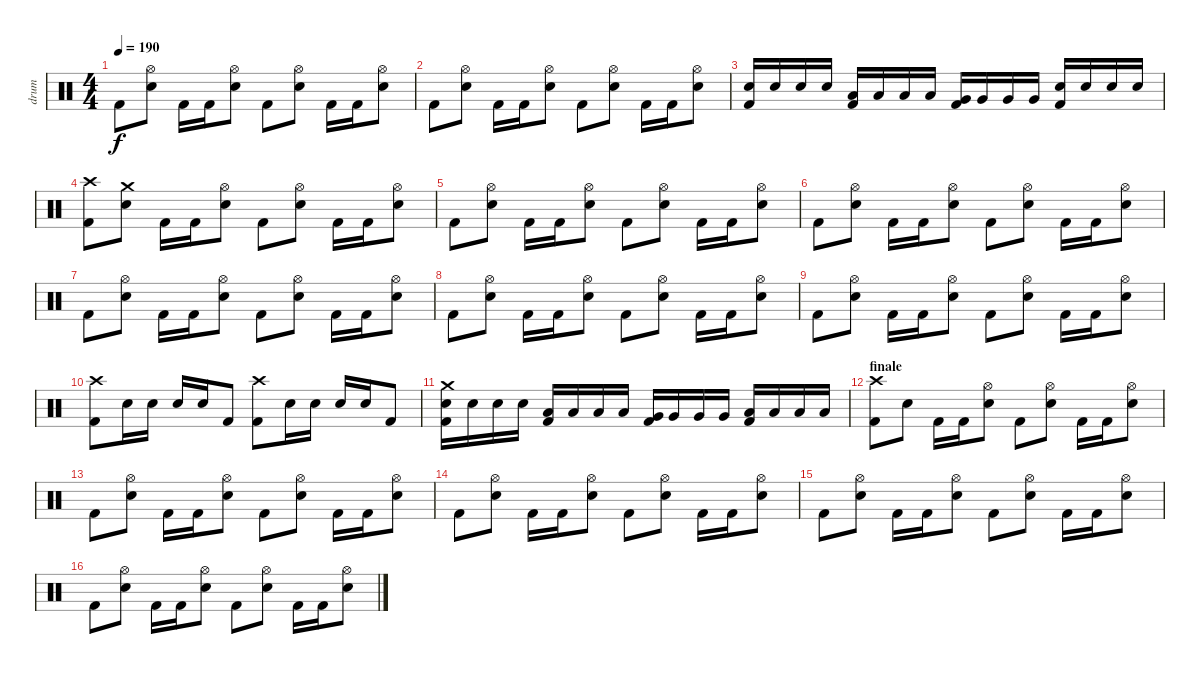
\track ("drum" "drum") {instrument percussion}
\staff {score}
\articulation defaults
\ts (4 4)
\tempo 190
\clef neutral
\ks c "Kick (hit) 2".8{dy f}
("Hi-Hat (open)" "Electric Snare (hit)").8 "Kick (hit) 2".16 "Kick (hit) 2".16 ("Hi-Hat (open)" "Electric Snare (hit)").8 "Kick (hit) 2".8 ("Hi-Hat (open)" "Electric Snare (hit)").8 "Kick (hit) 2".16 "Kick (hit) 2".16 ("Hi-Hat (open)" "Electric Snare (hit)").8 |
"Kick (hit) 2".8 ("Hi-Hat (open)" "Electric Snare (hit)").8 "Kick (hit) 2".16 "Kick (hit) 2".16 ("Hi-Hat (open)" "Electric Snare (hit)").8 "Kick (hit) 2".8 ("Hi-Hat (open)" "Electric Snare (hit)").8 "Kick (hit) 2".16 "Kick (hit) 2".16 ("Hi-Hat (open)" "Electric Snare (hit)").8 |
("Electric Snare (hit)" "Kick (hit) 2").16 "Electric Snare (hit)".16 "Electric Snare (hit)".16 "Electric Snare (hit)".16 ("Low Tom (hit)" "Kick (hit) 2").16 "Low Tom (hit)".16 "Low Tom (hit)".16 "Low Tom (hit)".16 ("Very Low Tom (hit)" "Kick (hit) 2").16 "Very Low Tom (hit)".16 "Very Low Tom (hit)".16 "Very Low Tom (hit)".16 ("Electric Snare (hit)" "Kick (hit) 2").16 "Electric Snare (hit)".16 "Electric Snare (hit)".16 "Electric Snare (hit)".16 |
("Crash high (hit)" "Kick (hit) 2").8 ("Crash medium (hit)" "Electric Snare (hit)").8 "Kick (hit) 2".16 "Kick (hit) 2".16 ("Hi-Hat (open)" "Electric Snare (hit)").8 "Kick (hit) 2".8 ("Hi-Hat (open)" "Electric Snare (hit)").8 "Kick (hit) 2".16 "Kick (hit) 2".16 ("Hi-Hat (open)" "Electric Snare (hit)").8 |
"Kick (hit) 2".8 ("Hi-Hat (open)" "Electric Snare (hit)").8 "Kick (hit) 2".16 "Kick (hit) 2".16 ("Hi-Hat (open)" "Electric Snare (hit)").8 "Kick (hit) 2".8 ("Hi-Hat (open)" "Electric Snare (hit)").8 "Kick (hit) 2".16 "Kick (hit) 2".16 ("Hi-Hat (open)" "Electric Snare (hit)").8 |
"Kick (hit) 2".8 ("Hi-Hat (open)" "Electric Snare (hit)").8 "Kick (hit) 2".16 "Kick (hit) 2".16 ("Hi-Hat (open)" "Electric Snare (hit)").8 "Kick (hit) 2".8 ("Hi-Hat (open)" "Electric Snare (hit)").8 "Kick (hit) 2".16 "Kick (hit) 2".16 ("Hi-Hat (open)" "Electric Snare (hit)").8 |
"Kick (hit) 2".8 ("Hi-Hat (open)" "Electric Snare (hit)").8 "Kick (hit) 2".16 "Kick (hit) 2".16 ("Hi-Hat (open)" "Electric Snare (hit)").8 "Kick (hit) 2".8 ("Hi-Hat (open)" "Electric Snare (hit)").8 "Kick (hit) 2".16 "Kick (hit) 2".16 ("Hi-Hat (open)" "Electric Snare (hit)").8 |
"Kick (hit) 2".8 ("Hi-Hat (open)" "Electric Snare (hit)").8 "Kick (hit) 2".16 "Kick (hit) 2".16 ("Hi-Hat (open)" "Electric Snare (hit)").8 "Kick (hit) 2".8 ("Hi-Hat (open)" "Electric Snare (hit)").8 "Kick (hit) 2".16 "Kick (hit) 2".16 ("Hi-Hat (open)" "Electric Snare (hit)").8 |
"Kick (hit) 2".8 ("Hi-Hat (open)" "Electric Snare (hit)").8 "Kick (hit) 2".16 "Kick (hit) 2".16 ("Hi-Hat (open)" "Electric Snare (hit)").8 "Kick (hit) 2".8 ("Hi-Hat (open)" "Electric Snare (hit)").8 "Kick (hit) 2".16 "Kick (hit) 2".16 ("Hi-Hat (open)" "Electric Snare (hit)").8 |
("Crash high (hit)" "Kick (hit) 2").8 "Electric Snare (hit)".16 "Electric Snare (hit)".16 "Electric Snare (hit)".16 "Electric Snare (hit)".16 "Kick (hit) 2".8 ("Crash high (hit)" "Kick (hit) 2").8 "Electric Snare (hit)".16 "Electric Snare (hit)".16 "Electric Snare (hit)".16 "Electric Snare (hit)".16 "Kick (hit) 2".8 |
("Crash medium (hit)" "Electric Snare (hit)" "Kick (hit) 2").16 "Electric Snare (hit)".16 "Electric Snare (hit)".16 "Electric Snare (hit)".16 ("Low Tom (hit)" "Kick (hit) 2").16 "Low Tom (hit)".16 "Low Tom (hit)".16 "Low Tom (hit)".16 ("Very Low Tom (hit)" "Kick (hit) 2").16 "Very Low Tom (hit)".16 "Very Low Tom (hit)".16 "Very Low Tom (hit)".16 ("Low Floor Tom (hit)" "Kick (hit) 2").16 "Low Floor Tom (hit)".16 "Low Floor Tom (hit)".16 "Low Floor Tom (hit)".16 |
\section ("" "finale")
("Crash high (hit)" "Kick (hit) 2").8 "Electric Snare (hit)".8 "Kick (hit) 2".16 "Kick (hit) 2".16 ("Hi-Hat (open)" "Electric Snare (hit)").8 "Kick (hit) 2".8 ("Hi-Hat (open)" "Electric Snare (hit)").8 "Kick (hit) 2".16 "Kick (hit) 2".16 ("Hi-Hat (open)" "Electric Snare (hit)").8 |
"Kick (hit) 2".8 ("Hi-Hat (open)" "Electric Snare (hit)").8 "Kick (hit) 2".16 "Kick (hit) 2".16 ("Hi-Hat (open)" "Electric Snare (hit)").8 "Kick (hit) 2".8 ("Hi-Hat (open)" "Electric Snare (hit)").8 "Kick (hit) 2".16 "Kick (hit) 2".16 ("Hi-Hat (open)" "Electric Snare (hit)").8 |
"Kick (hit) 2".8 ("Hi-Hat (open)" "Electric Snare (hit)").8 "Kick (hit) 2".16 "Kick (hit) 2".16 ("Hi-Hat (open)" "Electric Snare (hit)").8 "Kick (hit) 2".8 ("Hi-Hat (open)" "Electric Snare (hit)").8 "Kick (hit) 2".16 "Kick (hit) 2".16 ("Hi-Hat (open)" "Electric Snare (hit)").8 |
"Kick (hit) 2".8 ("Hi-Hat (open)" "Electric Snare (hit)").8 "Kick (hit) 2".16 "Kick (hit) 2".16 ("Hi-Hat (open)" "Electric Snare (hit)").8 "Kick (hit) 2".8 ("Hi-Hat (open)" "Electric Snare (hit)").8 "Kick (hit) 2".16 "Kick (hit) 2".16 ("Hi-Hat (open)" "Electric Snare (hit)").8 |
"Kick (hit) 2".8 ("Hi-Hat (open)" "Electric Snare (hit)").8 "Kick (hit) 2".16 "Kick (hit) 2".16 ("Hi-Hat (open)" "Electric Snare (hit)").8 "Kick (hit) 2".8 ("Hi-Hat (open)" "Electric Snare (hit)").8 "Kick (hit) 2".16 "Kick (hit) 2".16 ("Hi-Hat (open)" "Electric Snare (hit)").8
